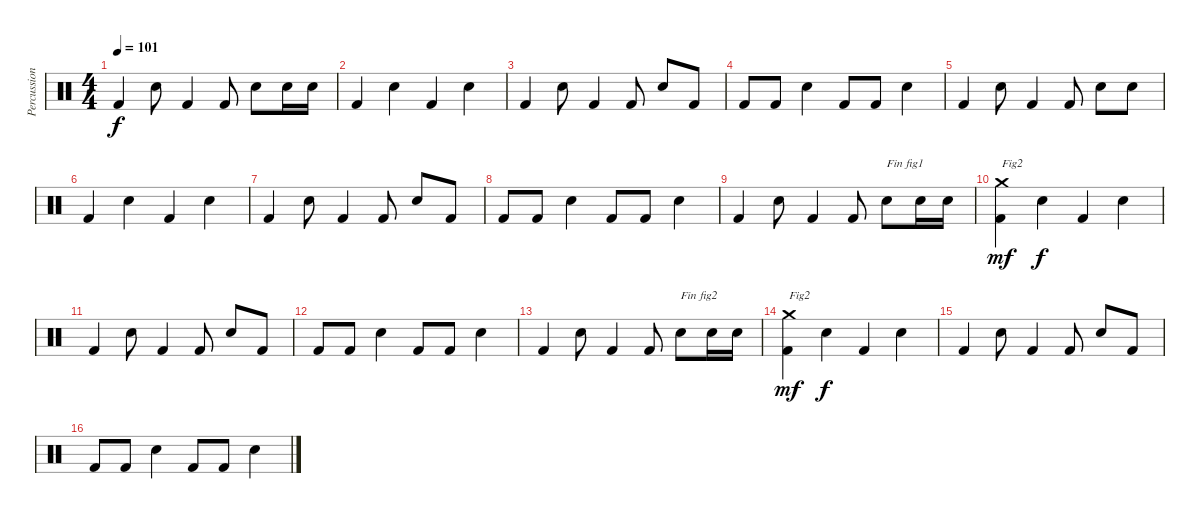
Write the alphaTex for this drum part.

\track ("Percussions" "Percussion") {instrument percussion}
\staff {score}
\articulation defaults
\ts (4 4)
\tempo 101
\clef neutral
\ks c "Kick (hit) 2".4{dy f} "Snare (hit) 2".8 "Kick (hit) 2".4 "Kick (hit) 2".8 "Snare (hit) 2".8 "Snare (hit) 2".16 "Snare (hit) 2".16
|
"Kick (hit) 2".4 "Snare (hit) 2".4 "Kick (hit) 2".4 "Snare (hit) 2".4 |
"Kick (hit) 2".4 "Snare (hit) 2".8 "Kick (hit) 2".4 "Kick (hit) 2".8 "Snare (hit) 2".8 "Kick (hit) 2".8 |
"Kick (hit) 2".8 "Kick (hit) 2".8 "Snare (hit) 2".4 "Kick (hit) 2".8 "Kick (hit) 2".8 "Snare (hit) 2".4 |
"Kick (hit) 2".4 "Snare (hit) 2".8 "Kick (hit) 2".4 "Kick (hit) 2".8 "Snare (hit) 2".8 "Snare (hit) 2".8 |
"Kick (hit) 2".4 "Snare (hit) 2".4 "Kick (hit) 2".4 "Snare (hit) 2".4 |
"Kick (hit) 2".4 "Snare (hit) 2".8 "Kick (hit) 2".4 "Kick (hit) 2".8 "Snare (hit) 2".8 "Kick (hit) 2".8 |
"Kick (hit) 2".8 "Kick (hit) 2".8 "Snare (hit) 2".4 "Kick (hit) 2".8 "Kick (hit) 2".8 "Snare (hit) 2".4 |
"Kick (hit) 2".4 "Snare (hit) 2".8 "Kick (hit) 2".4 "Kick (hit) 2".8 "Snare (hit) 2".8{txt "Fin fig1"} "Snare (hit) 2".16 "Snare (hit) 2".16 |
("Kick (hit) 2" "Crash medium (hit)").4{txt "Fig2" dy mf} "Snare (hit) 2".4{dy f} "Kick (hit) 2".4 "Snare (hit) 2".4 |
"Kick (hit) 2".4 "Snare (hit) 2".8 "Kick (hit) 2".4 "Kick (hit) 2".8 "Snare (hit) 2".8 "Kick (hit) 2".8 |
"Kick (hit) 2".8 "Kick (hit) 2".8 "Snare (hit) 2".4 "Kick (hit) 2".8 "Kick (hit) 2".8 "Snare (hit) 2".4 |
"Kick (hit) 2".4 "Snare (hit) 2".8 "Kick (hit) 2".4 "Kick (hit) 2".8 "Snare (hit) 2".8{txt "Fin fig2"} "Snare (hit) 2".16 "Snare (hit) 2".16 |
("Kick (hit) 2" "Crash medium (hit)").4{txt "Fig2" dy mf} "Snare (hit) 2".4{dy f} "Kick (hit) 2".4 "Snare (hit) 2".4 |
"Kick (hit) 2".4 "Snare (hit) 2".8 "Kick (hit) 2".4 "Kick (hit) 2".8 "Snare (hit) 2".8 "Kick (hit) 2".8 |
"Kick (hit) 2".8 "Kick (hit) 2".8 "Snare (hit) 2".4 "Kick (hit) 2".8 "Kick (hit) 2".8 "Snare (hit) 2".4
